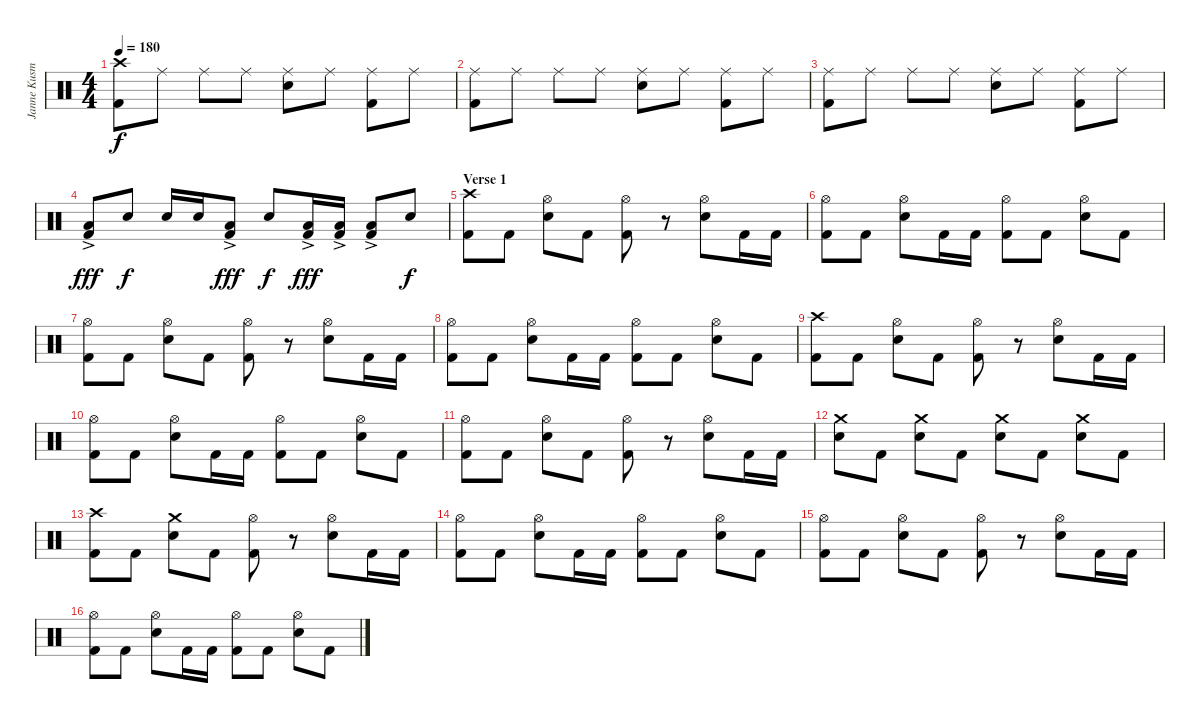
\track ("Janne Kusmin - Drums" "Janne Kusm") {instrument percussion}
\staff {score}
\articulation defaults
\ts (4 4)
\tempo 180
\clef neutral
\ks c
("Crash high (hit)" "Kick (hit) 2").8{dy f} "Ride (middle)".8 "Ride (middle)".8 "Ride (middle)".8 ("Ride (middle)" "Electric Snare (hit)").8 "Ride (middle)".8 ("Ride (middle)" "Kick (hit) 2").8 "Ride (middle)".8 |
("Ride (middle)" "Kick (hit) 2").8 "Ride (middle)".8 "Ride (middle)".8 "Ride (middle)".8 ("Ride (middle)" "Electric Snare (hit)").8 "Ride (middle)".8 ("Ride (middle)" "Kick (hit) 2").8 "Ride (middle)".8 |
("Ride (middle)" "Kick (hit) 2").8 "Ride (middle)".8 "Ride (middle)".8 "Ride (middle)".8 ("Ride (middle)" "Electric Snare (hit)").8 "Ride (middle)".8 ("Ride (middle)" "Kick (hit) 2").8 "Ride (middle)".8 |
("Low Tom (hit)"{ac} "Kick (hit) 2").8{dy fff} "Electric Snare (hit)".8{dy f} "Electric Snare (hit)".16 "Electric Snare (hit)".16 ("Low Tom (hit)"{ac} "Kick (hit) 2").8{dy fff} "Electric Snare (hit)".8{dy f} ("Low Tom (hit)"{ac} "Kick (hit) 2").16{dy fff} ("Low Tom (hit)"{ac} "Kick (hit) 2").16 ("Low Tom (hit)"{ac} "Kick (hit) 2").8 "Electric Snare (hit)".8{dy f} |
\section ("" "Verse 1")
("Crash high (hit)" "Kick (hit) 2").8 "Kick (hit) 2".8 ("Hi-Hat (open)" "Electric Snare (hit)").8 "Kick (hit) 2".8 ("Hi-Hat (open)" "Kick (hit) 2").8 r.8 ("Hi-Hat (open)" "Electric Snare (hit)").8 "Kick (hit) 2".16 "Kick (hit) 2".16 |
("Hi-Hat (open)" "Kick (hit) 2").8 "Kick (hit) 2".8 ("Hi-Hat (open)" "Electric Snare (hit)").8 "Kick (hit) 2".16 "Kick (hit) 2".16 ("Hi-Hat (open)" "Kick (hit) 2").8 "Kick (hit) 2".8 ("Hi-Hat (open)" "Electric Snare (hit)").8 "Kick (hit) 2".8 |
("Hi-Hat (open)" "Kick (hit) 2").8 "Kick (hit) 2".8 ("Hi-Hat (open)" "Electric Snare (hit)").8 "Kick (hit) 2".8 ("Hi-Hat (open)" "Kick (hit) 2").8 r.8 ("Hi-Hat (open)" "Electric Snare (hit)").8 "Kick (hit) 2".16 "Kick (hit) 2".16 |
("Hi-Hat (open)" "Kick (hit) 2").8 "Kick (hit) 2".8 ("Hi-Hat (open)" "Electric Snare (hit)").8 "Kick (hit) 2".16 "Kick (hit) 2".16 ("Hi-Hat (open)" "Kick (hit) 2").8 "Kick (hit) 2".8 ("Hi-Hat (open)" "Electric Snare (hit)").8 "Kick (hit) 2".8 |
("Crash high (hit)" "Kick (hit) 2").8 "Kick (hit) 2".8 ("Hi-Hat (open)" "Electric Snare (hit)").8 "Kick (hit) 2".8 ("Hi-Hat (open)" "Kick (hit) 2").8 r.8 ("Hi-Hat (open)" "Electric Snare (hit)").8 "Kick (hit) 2".16 "Kick (hit) 2".16 |
("Hi-Hat (open)" "Kick (hit) 2").8 "Kick (hit) 2".8 ("Hi-Hat (open)" "Electric Snare (hit)").8 "Kick (hit) 2".16 "Kick (hit) 2".16 ("Hi-Hat (open)" "Kick (hit) 2").8 "Kick (hit) 2".8 ("Hi-Hat (open)" "Electric Snare (hit)").8 "Kick (hit) 2".8 |
("Hi-Hat (open)" "Kick (hit) 2").8 "Kick (hit) 2".8 ("Hi-Hat (open)" "Electric Snare (hit)").8 "Kick (hit) 2".8 ("Hi-Hat (open)" "Kick (hit) 2").8 r.8 ("Hi-Hat (open)" "Electric Snare (hit)").8 "Kick (hit) 2".16 "Kick (hit) 2".16 |
("Crash medium (hit)" "Electric Snare (hit)").8 "Kick (hit) 2".8 ("Crash medium (hit)" "Electric Snare (hit)").8 "Kick (hit) 2".8 ("Crash medium (hit)" "Electric Snare (hit)").8 "Kick (hit) 2".8 ("Crash medium (hit)" "Electric Snare (hit)").8 "Kick (hit) 2".8 |
("Crash high (hit)" "Kick (hit) 2").8 "Kick (hit) 2".8 ("Crash medium (hit)" "Electric Snare (hit)").8 "Kick (hit) 2".8 ("Hi-Hat (open)" "Kick (hit) 2").8 r.8 ("Hi-Hat (open)" "Electric Snare (hit)").8 "Kick (hit) 2".16 "Kick (hit) 2".16 |
("Hi-Hat (open)" "Kick (hit) 2").8 "Kick (hit) 2".8 ("Hi-Hat (open)" "Electric Snare (hit)").8 "Kick (hit) 2".16 "Kick (hit) 2".16 ("Hi-Hat (open)" "Kick (hit) 2").8 "Kick (hit) 2".8 ("Hi-Hat (open)" "Electric Snare (hit)").8 "Kick (hit) 2".8 |
("Hi-Hat (open)" "Kick (hit) 2").8 "Kick (hit) 2".8 ("Hi-Hat (open)" "Electric Snare (hit)").8 "Kick (hit) 2".8 ("Hi-Hat (open)" "Kick (hit) 2").8 r.8 ("Hi-Hat (open)" "Electric Snare (hit)").8 "Kick (hit) 2".16 "Kick (hit) 2".16 |
("Hi-Hat (open)" "Kick (hit) 2").8 "Kick (hit) 2".8 ("Hi-Hat (open)" "Electric Snare (hit)").8 "Kick (hit) 2".16 "Kick (hit) 2".16 ("Hi-Hat (open)" "Kick (hit) 2").8 "Kick (hit) 2".8 ("Hi-Hat (open)" "Electric Snare (hit)").8 "Kick (hit) 2".8
